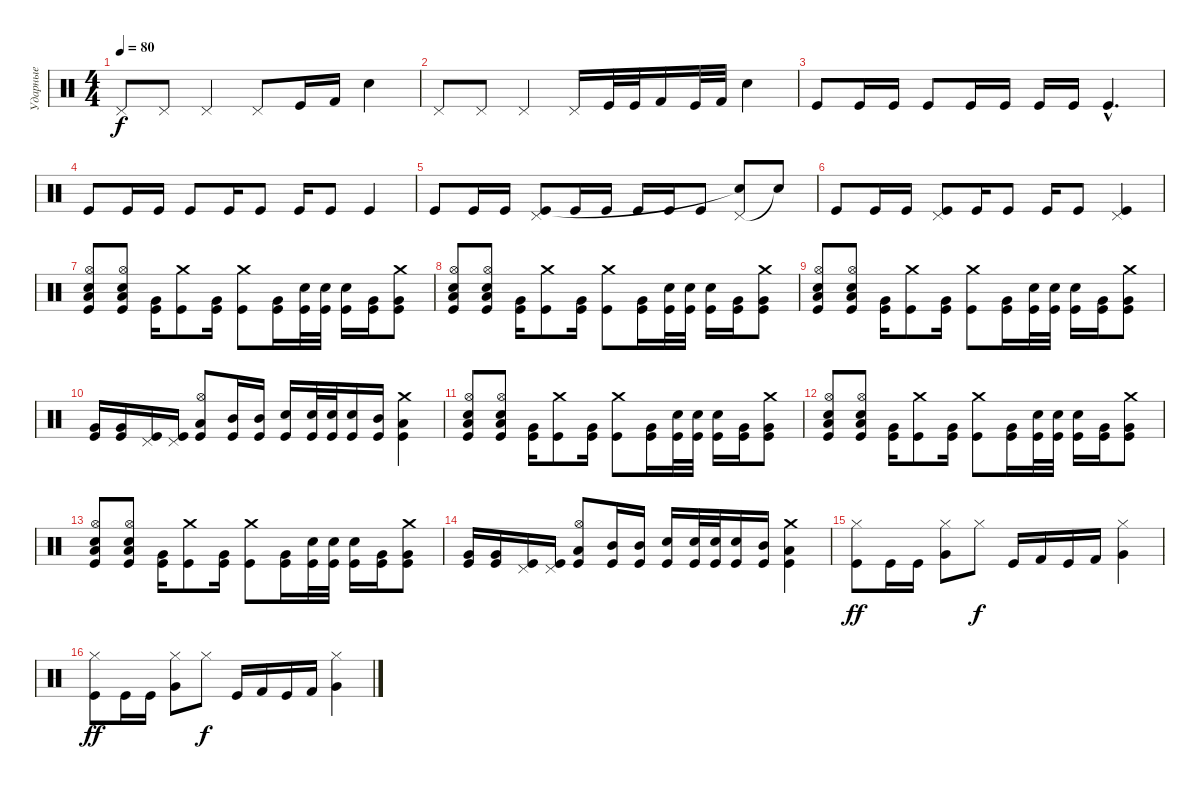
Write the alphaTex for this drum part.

\track ("Ударные" "Ударные") {instrument percussion}
\staff {score}
\articulation defaults
\ts (4 4)
\tempo 80
\clef neutral
\ks c "Pedal Hi-Hat (hit)".8{dy f} "Pedal Hi-Hat (hit)".8 "Pedal Hi-Hat (hit)".4 "Pedal Hi-Hat (hit)".8 "Kick (hit)".16 "Kick (hit) 2".16 "Snare (hit) 2".4
|
"Pedal Hi-Hat (hit)".8 "Pedal Hi-Hat (hit)".8 "Pedal Hi-Hat (hit)".4 "Pedal Hi-Hat (hit)".16 "Kick (hit)".32 "Kick (hit)".32 "Kick (hit) 2".16 "Kick (hit)".32 "Kick (hit) 2".32 "Snare (hit) 2".4 |
"Kick (hit)".8 "Kick (hit)".16 "Kick (hit)".16 "Kick (hit)".8 "Kick (hit)".16 "Kick (hit)".16 "Kick (hit)".16 "Kick (hit)".16 "Kick (hit)"{hac}.4{d} |
"Kick (hit)".8 "Kick (hit)".16 "Kick (hit)".16 "Kick (hit)".8 "Kick (hit)".16 "Kick (hit)".8 "Kick (hit)".16 "Kick (hit)".8 "Kick (hit)".4 |
"Kick (hit)".8 "Kick (hit)".16 "Kick (hit)".16 ("Pedal Hi-Hat (hit)" "Kick (hit)").8 "Kick (hit)".16 "Kick (hit)".16 "Kick (hit)".16 "Kick (hit)".16 "Kick (hit)".8 ("Pedal Hi-Hat (hit)" "Snare (hit)"{t}).8 "Snare (hit)"{t}.8 |
"Kick (hit)".8 "Kick (hit)".16 "Kick (hit)".16 ("Pedal Hi-Hat (hit)" "Kick (hit)").8 "Kick (hit)".16 "Kick (hit)".8 "Kick (hit)".16 "Kick (hit)".8 ("Pedal Hi-Hat (hit)" "Kick (hit)").4 |
("Hi-Hat (open)" "Low Tom (hit)" "Snare (hit) 2" "Kick (hit)").8 ("Hi-Hat (open)" "Low Tom (hit)" "Snare (hit) 2" "Kick (hit)").8 ("Very Low Tom (hit)" "Kick (hit)").16 ("Crash medium (hit)" "Kick (hit)").8 ("Very Low Tom (hit)" "Kick (hit)").16 ("Crash medium (hit)" "Kick (hit)").8 ("Very Low Tom (hit)" "Kick (hit)").16 ("Electric Snare (hit)" "Kick (hit)").32 ("Electric Snare (hit)" "Kick (hit)").32 ("Electric Snare (hit)" "Kick (hit)").16 ("Very Low Tom (hit)" "Kick (hit)").16 ("Crash medium (hit)" "Very Low Tom (hit)" "Kick (hit)").8 |
("Hi-Hat (open)" "Low Tom (hit)" "Snare (hit) 2" "Kick (hit)").8 ("Hi-Hat (open)" "Low Tom (hit)" "Snare (hit) 2" "Kick (hit)").8 ("Very Low Tom (hit)" "Kick (hit)").16 ("Crash medium (hit)" "Kick (hit)").8 ("Very Low Tom (hit)" "Kick (hit)").16 ("Crash medium (hit)" "Kick (hit)").8 ("Very Low Tom (hit)" "Kick (hit)").16 ("Electric Snare (hit)" "Kick (hit)").32 ("Electric Snare (hit)" "Kick (hit)").32 ("Electric Snare (hit)" "Kick (hit)").16 ("Very Low Tom (hit)" "Kick (hit)").16 ("Crash medium (hit)" "Very Low Tom (hit)" "Kick (hit)").8 |
("Hi-Hat (open)" "Low Tom (hit)" "Snare (hit) 2" "Kick (hit)").8 ("Hi-Hat (open)" "Low Tom (hit)" "Snare (hit) 2" "Kick (hit)").8 ("Very Low Tom (hit)" "Kick (hit)").16 ("Crash medium (hit)" "Kick (hit)").8 ("Very Low Tom (hit)" "Kick (hit)").16 ("Crash medium (hit)" "Kick (hit)").8 ("Very Low Tom (hit)" "Kick (hit)").16 ("Electric Snare (hit)" "Kick (hit)").32 ("Electric Snare (hit)" "Kick (hit)").32 ("Electric Snare (hit)" "Kick (hit)").16 ("Very Low Tom (hit)" "Kick (hit)").16 ("Crash medium (hit)" "Very Low Tom (hit)" "Kick (hit)").8 |
("Very Low Tom (hit)" "Kick (hit)").16 ("Very Low Tom (hit)" "Kick (hit)").16 ("Pedal Hi-Hat (hit)" "Kick (hit)").16 ("Pedal Hi-Hat (hit)" "Kick (hit)").16 ("Hi-Hat (open)" "Low Tom (hit)" "Kick (hit)").8 ("Mid Tom (hit)" "Kick (hit)").16 ("Mid Tom (hit)" "Kick (hit)").16 ("Electric Snare (hit)" "Kick (hit)").16 ("Electric Snare (hit)" "Kick (hit)").32 ("Electric Snare (hit)" "Kick (hit)").32 ("Electric Snare (hit)" "Kick (hit)").16 ("Mid Tom (hit)" "Kick (hit)").16 ("Crash medium (hit)" "Low Tom (hit)" "Kick (hit)").4 |
("Hi-Hat (open)" "Low Tom (hit)" "Snare (hit) 2" "Kick (hit)").8 ("Hi-Hat (open)" "Low Tom (hit)" "Snare (hit) 2" "Kick (hit)").8 ("Very Low Tom (hit)" "Kick (hit)").16 ("Crash medium (hit)" "Kick (hit)").8 ("Very Low Tom (hit)" "Kick (hit)").16 ("Crash medium (hit)" "Kick (hit)").8 ("Very Low Tom (hit)" "Kick (hit)").16 ("Electric Snare (hit)" "Kick (hit)").32 ("Electric Snare (hit)" "Kick (hit)").32 ("Electric Snare (hit)" "Kick (hit)").16 ("Very Low Tom (hit)" "Kick (hit)").16 ("Crash medium (hit)" "Very Low Tom (hit)" "Kick (hit)").8 |
("Hi-Hat (open)" "Low Tom (hit)" "Snare (hit) 2" "Kick (hit)").8 ("Hi-Hat (open)" "Low Tom (hit)" "Snare (hit) 2" "Kick (hit)").8 ("Very Low Tom (hit)" "Kick (hit)").16 ("Crash medium (hit)" "Kick (hit)").8 ("Very Low Tom (hit)" "Kick (hit)").16 ("Crash medium (hit)" "Kick (hit)").8 ("Very Low Tom (hit)" "Kick (hit)").16 ("Electric Snare (hit)" "Kick (hit)").32 ("Electric Snare (hit)" "Kick (hit)").32 ("Electric Snare (hit)" "Kick (hit)").16 ("Very Low Tom (hit)" "Kick (hit)").16 ("Crash medium (hit)" "Very Low Tom (hit)" "Kick (hit)").8 |
("Hi-Hat (open)" "Low Tom (hit)" "Snare (hit) 2" "Kick (hit)").8 ("Hi-Hat (open)" "Low Tom (hit)" "Snare (hit) 2" "Kick (hit)").8 ("Very Low Tom (hit)" "Kick (hit)").16 ("Crash medium (hit)" "Kick (hit)").8 ("Very Low Tom (hit)" "Kick (hit)").16 ("Crash medium (hit)" "Kick (hit)").8 ("Very Low Tom (hit)" "Kick (hit)").16 ("Electric Snare (hit)" "Kick (hit)").32 ("Electric Snare (hit)" "Kick (hit)").32 ("Electric Snare (hit)" "Kick (hit)").16 ("Very Low Tom (hit)" "Kick (hit)").16 ("Crash medium (hit)" "Very Low Tom (hit)" "Kick (hit)").8 |
("Very Low Tom (hit)" "Kick (hit)").16 ("Very Low Tom (hit)" "Kick (hit)").16 ("Pedal Hi-Hat (hit)" "Kick (hit)").16 ("Pedal Hi-Hat (hit)" "Kick (hit)").16 ("Hi-Hat (open)" "Low Tom (hit)" "Kick (hit)").8 ("Mid Tom (hit)" "Kick (hit)").16 ("Mid Tom (hit)" "Kick (hit)").16 ("Electric Snare (hit)" "Kick (hit)").16 ("Electric Snare (hit)" "Kick (hit)").32 ("Electric Snare (hit)" "Kick (hit)").32 ("Electric Snare (hit)" "Kick (hit)").16 ("Mid Tom (hit)" "Kick (hit)").16 ("Crash medium (hit)" "Low Tom (hit)" "Kick (hit)").4 |
("Hi-Hat (closed)" "Kick (hit)").8{dy ff} "Kick (hit)".16 "Kick (hit)".16 ("Hi-Hat (closed)" "Very Low Tom (hit)").8 "Hi-Hat (closed)".8{dy f} "Kick (hit)".16 "Kick (hit) 2".16 "Kick (hit)".16 "Kick (hit) 2".16 ("Hi-Hat (closed)" "Very Low Tom (hit)").4 |
("Hi-Hat (closed)" "Kick (hit)").8{dy ff} "Kick (hit)".16 "Kick (hit)".16 ("Hi-Hat (closed)" "Very Low Tom (hit)").8 "Hi-Hat (closed)".8{dy f} "Kick (hit)".16 "Kick (hit) 2".16 "Kick (hit)".16 "Kick (hit) 2".16 ("Hi-Hat (closed)" "Very Low Tom (hit)").4
